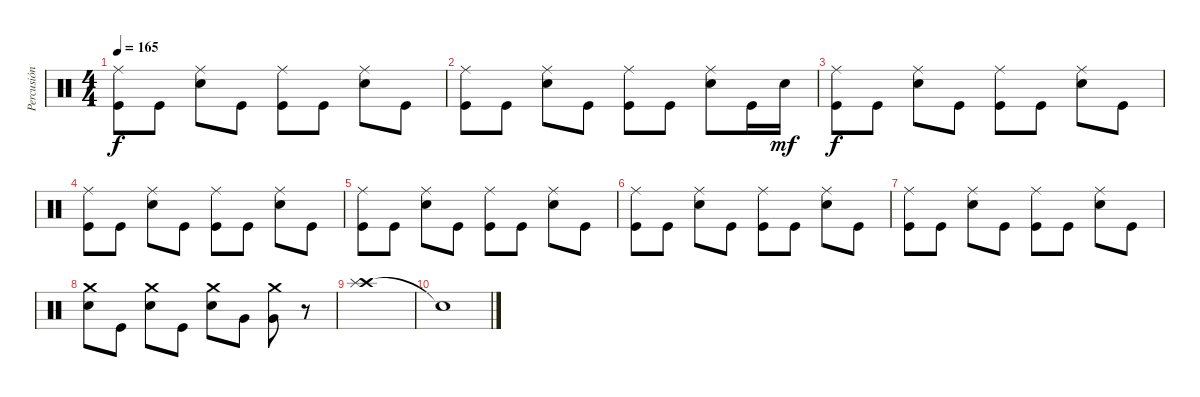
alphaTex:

\track ("Percusión" "Percusión") {instrument percussion}
\staff {score}
\articulation defaults
\ts (4 4)
\tempo 165
\clef neutral
\ks c
("Ride (middle)" "Kick (hit)").8{dy f} "Kick (hit)".8 ("Ride (middle)" "Electric Snare (hit)").8 "Kick (hit)".8 ("Ride (middle)" "Kick (hit)").8 "Kick (hit)".8 ("Ride (middle)" "Electric Snare (hit)").8 "Kick (hit)".8 |
("Ride (middle)" "Kick (hit)").8 "Kick (hit)".8 ("Ride (middle)" "Electric Snare (hit)").8 "Kick (hit)".8 ("Ride (middle)" "Kick (hit)").8 "Kick (hit)".8 ("Ride (middle)" "Electric Snare (hit)").8 "Kick (hit)".16 "Electric Snare (hit)".16{dy mf} |
("Ride (middle)" "Kick (hit)").8{dy f} "Kick (hit)".8 ("Ride (middle)" "Electric Snare (hit)").8 "Kick (hit)".8 ("Ride (middle)" "Kick (hit)").8 "Kick (hit)".8 ("Ride (middle)" "Electric Snare (hit)").8 "Kick (hit)".8 |
("Ride (middle)" "Kick (hit)").8 "Kick (hit)".8 ("Ride (middle)" "Electric Snare (hit)").8 "Kick (hit)".8 ("Ride (middle)" "Kick (hit)").8 "Kick (hit)".8 ("Ride (middle)" "Electric Snare (hit)").8 "Kick (hit)".8 |
("Ride (middle)" "Kick (hit)").8 "Kick (hit)".8 ("Ride (middle)" "Electric Snare (hit)").8 "Kick (hit)".8 ("Ride (middle)" "Kick (hit)").8 "Kick (hit)".8 ("Ride (middle)" "Electric Snare (hit)").8 "Kick (hit)".8 |
("Ride (middle)" "Kick (hit)").8 "Kick (hit)".8 ("Ride (middle)" "Electric Snare (hit)").8 "Kick (hit)".8 ("Ride (middle)" "Kick (hit)").8 "Kick (hit)".8 ("Ride (middle)" "Electric Snare (hit)").8 "Kick (hit)".8 |
("Ride (middle)" "Kick (hit)").8 "Kick (hit)".8 ("Ride (middle)" "Electric Snare (hit)").8 "Kick (hit)".8 ("Ride (middle)" "Kick (hit)").8 "Kick (hit)".8 ("Ride (middle)" "Electric Snare (hit)").8 "Kick (hit)".8 |
("Crash medium (hit)" "Electric Snare (hit)").8 "Kick (hit)".8 ("Crash medium (hit)" "Electric Snare (hit)").8 "Kick (hit)".8 ("Crash medium (hit)" "Electric Snare (hit)").8 "Very Low Tom (hit)".8 ("Crash medium (hit)" "Very Low Tom (hit)").8 r.8 |
("Crash high (hit)" "Splash (hit)").1 |
"Snare (hit)"{t}.1
